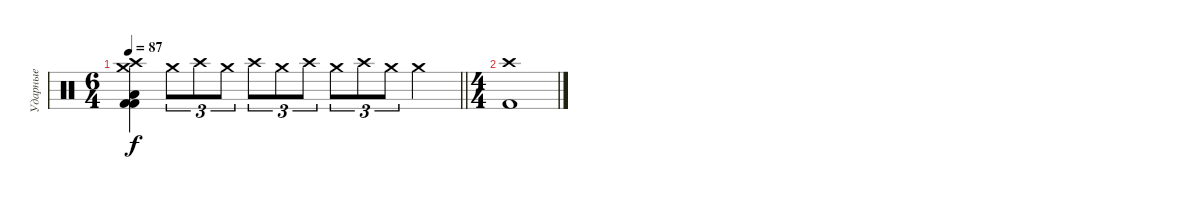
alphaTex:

\track ("Ударные" "Ударные") {instrument percussion}
\staff {score}
\articulation defaults
\ts (6 4)
\tempo 87
\clef neutral
\barLineRight lightlight
\ks c
("Crash high (hit)" "Crash medium (hit)" "Kick (hit) 2" "Kick (hit) 2" "Low Floor Tom (hit)").4{dy f} "Crash medium (hit)".8{tu (3 2)} "Crash high (hit)".8{tu (3 2)} "Crash medium (hit)".8{tu (3 2)} "Crash high (hit)".8{tu (3 2)} "Crash medium (hit)".8{tu (3 2)} "Crash high (hit)".8{tu (3 2)} "Crash medium (hit)".8{tu (3 2)} "Crash high (hit)".8{tu (3 2)} "Crash medium (hit)".8{tu (3 2)} "Crash medium (hit)".2 |
\ts (4 4)
("Kick (hit) 2" "Crash high (hit)").1
